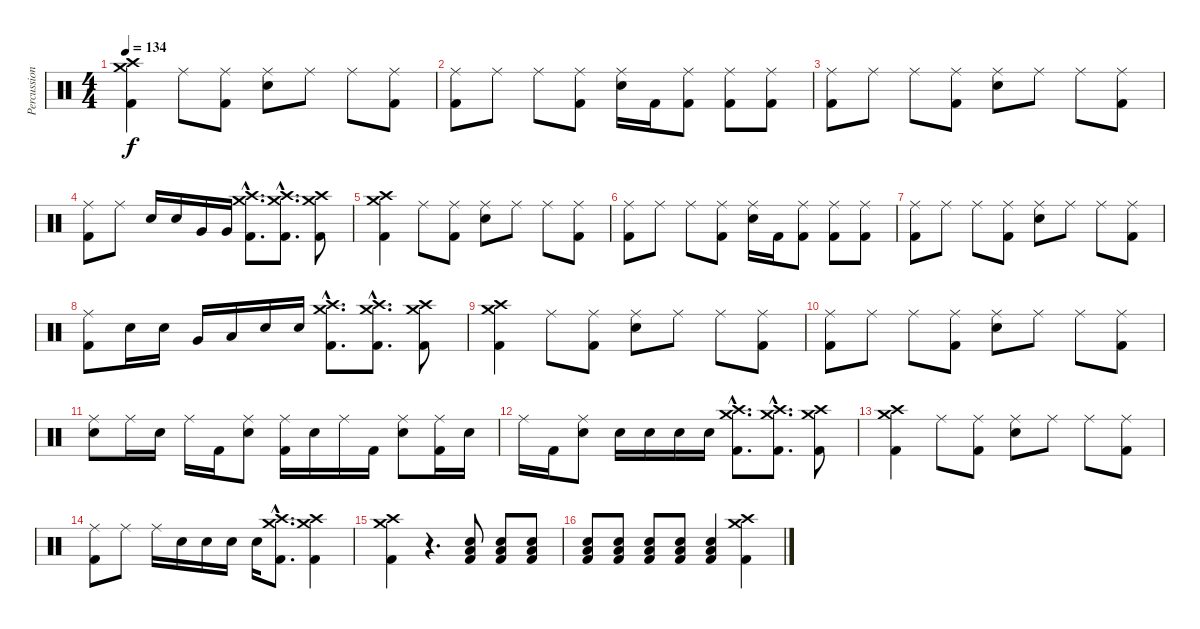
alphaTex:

\track ("Percussion" "Percussion") {instrument percussion}
\staff {score}
\articulation defaults
\ts (4 4)
\tempo 134
\clef neutral
\ks c
("Crash high (hit)" "Crash medium (hit)" "Kick (hit) 2").4{dy f} "Ride (middle)".8 ("Ride (middle)" "Kick (hit) 2").8 ("Ride (middle)" "Snare (hit) 2").8 "Ride (middle)".8 "Ride (middle)".8 ("Ride (middle)" "Kick (hit) 2").8 |
("Ride (middle)" "Kick (hit) 2").8 "Ride (middle)".8 "Ride (middle)".8 ("Ride (middle)" "Kick (hit) 2").8 ("Ride (middle)" "Snare (hit) 2").16 "Kick (hit) 2".16 ("Ride (middle)" "Kick (hit) 2").8 ("Ride (middle)" "Kick (hit) 2").8 ("Ride (middle)" "Kick (hit) 2").8 |
("Ride (middle)" "Kick (hit) 2").8 "Ride (middle)".8 "Ride (middle)".8 ("Ride (middle)" "Kick (hit) 2").8 ("Ride (middle)" "Snare (hit) 2").8 "Ride (middle)".8 "Ride (middle)".8 ("Ride (middle)" "Kick (hit) 2").8 |
("Ride (middle)" "Kick (hit) 2").8 "Ride (middle)".8 "Snare (hit) 2".16 "Snare (hit) 2".16 "Very Low Tom (hit)".16 "Very Low Tom (hit)".16 ("Crash high (hit)"{hac} "Crash medium (hit)"{hac} "Kick (hit) 2"{hac}).8{d} ("Crash high (hit)"{hac} "Crash medium (hit)"{hac} "Kick (hit) 2"{hac}).8{d} ("Crash high (hit)" "Crash medium (hit)" "Kick (hit) 2").8 |
("Crash high (hit)" "Crash medium (hit)" "Kick (hit) 2").4 "Ride (middle)".8 ("Ride (middle)" "Kick (hit) 2").8 ("Ride (middle)" "Snare (hit) 2").8 "Ride (middle)".8 "Ride (middle)".8 ("Ride (middle)" "Kick (hit) 2").8 |
("Ride (middle)" "Kick (hit) 2").8 "Ride (middle)".8 "Ride (middle)".8 ("Ride (middle)" "Kick (hit) 2").8 ("Ride (middle)" "Snare (hit) 2").16 "Kick (hit) 2".16 ("Ride (middle)" "Kick (hit) 2").8 ("Ride (middle)" "Kick (hit) 2").8 ("Ride (middle)" "Kick (hit) 2").8 |
("Ride (middle)" "Kick (hit) 2").8 "Ride (middle)".8 "Ride (middle)".8 ("Ride (middle)" "Kick (hit) 2").8 ("Ride (middle)" "Snare (hit) 2").8 "Ride (middle)".8 "Ride (middle)".8 ("Ride (middle)" "Kick (hit) 2").8 |
("Ride (middle)" "Kick (hit) 2").8 "Snare (hit) 2".16 "Snare (hit) 2".16 "Very Low Tom (hit)".16 "Low Floor Tom (hit)".16 "Snare (hit) 2".16 "Snare (hit) 2".16 ("Crash high (hit)"{hac} "Crash medium (hit)"{hac} "Kick (hit) 2"{hac}).8{d} ("Crash high (hit)"{hac} "Crash medium (hit)"{hac} "Kick (hit) 2"{hac}).8{d} ("Crash high (hit)" "Crash medium (hit)" "Kick (hit) 2").8 |
("Crash high (hit)" "Crash medium (hit)" "Kick (hit) 2").4 "Ride (middle)".8 ("Ride (middle)" "Kick (hit) 2").8 ("Ride (middle)" "Snare (hit) 2").8 "Ride (middle)".8 "Ride (middle)".8 ("Ride (middle)" "Kick (hit) 2").8 |
("Ride (middle)" "Kick (hit) 2").8 "Ride (middle)".8 "Ride (middle)".8 ("Ride (middle)" "Kick (hit) 2").8 ("Ride (middle)" "Snare (hit) 2").8 "Ride (middle)".8 "Ride (middle)".8 ("Ride (middle)" "Kick (hit) 2").8 |
("Ride (middle)" "Snare (hit) 2").8 "Ride (middle)".16 "Snare (hit) 2".16 "Ride (middle)".16 "Kick (hit) 2".16 ("Ride (middle)" "Snare (hit) 2").8 ("Ride (middle)" "Kick (hit) 2").16 "Snare (hit) 2".16 "Ride (middle)".16 "Kick (hit) 2".16 ("Ride (middle)" "Snare (hit) 2").8 ("Ride (middle)" "Kick (hit) 2").16 "Snare (hit) 2".16 |
"Ride (middle)".16 "Kick (hit) 2".16 ("Ride (middle)" "Snare (hit) 2").8 "Snare (hit) 2".16 "Snare (hit) 2".16 "Snare (hit) 2".16 "Snare (hit) 2".16 ("Crash high (hit)"{hac} "Crash medium (hit)"{hac} "Kick (hit) 2"{hac}).8{d} ("Crash high (hit)"{hac} "Crash medium (hit)"{hac} "Kick (hit) 2"{hac}).8{d} ("Crash high (hit)" "Crash medium (hit)" "Kick (hit) 2").8 |
("Crash high (hit)" "Crash medium (hit)" "Kick (hit) 2").4 "Ride (middle)".8 ("Ride (middle)" "Kick (hit) 2").8 ("Ride (middle)" "Snare (hit) 2").8 "Ride (middle)".8 "Ride (middle)".8 ("Ride (middle)" "Kick (hit) 2").8 |
("Ride (middle)" "Kick (hit) 2").8 "Ride (middle)".8 "Ride (middle)".16 "Snare (hit) 2".16 "Snare (hit) 2".16 "Snare (hit) 2".16 "Snare (hit) 2".16 ("Crash high (hit)"{hac} "Crash medium (hit)"{hac} "Kick (hit) 2"{hac}).8{d} ("Crash high (hit)" "Crash medium (hit)" "Kick (hit) 2").4 |
("Crash high (hit)" "Crash medium (hit)" "Kick (hit) 2").4 r.4{d} ("Snare (hit) 2" "Low Floor Tom (hit)" "Kick (hit) 2").8 ("Snare (hit) 2" "Low Floor Tom (hit)" "Kick (hit) 2").8 ("Snare (hit) 2" "Low Floor Tom (hit)" "Kick (hit) 2").8 |
("Snare (hit) 2" "Low Floor Tom (hit)" "Kick (hit) 2").8 ("Snare (hit) 2" "Low Floor Tom (hit)" "Kick (hit) 2").8 ("Snare (hit) 2" "Low Floor Tom (hit)" "Kick (hit) 2").8 ("Snare (hit) 2" "Low Floor Tom (hit)" "Kick (hit) 2").8 ("Snare (hit) 2" "Low Floor Tom (hit)" "Kick (hit) 2").4 ("Crash high (hit)" "Crash medium (hit)" "Kick (hit) 2").4
